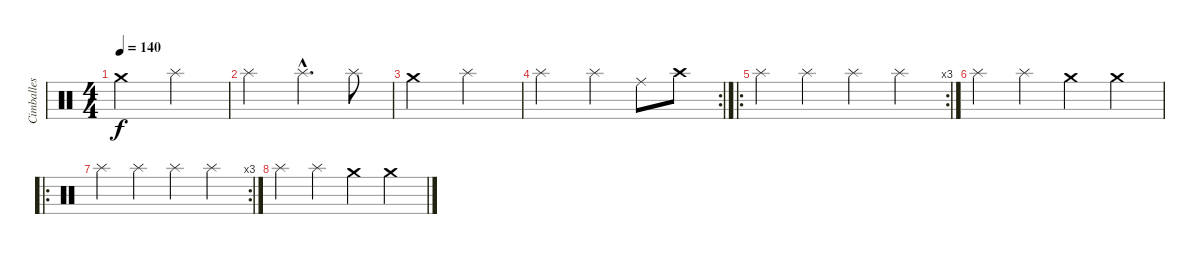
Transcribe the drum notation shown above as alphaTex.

\track ("Cimballes" "Cimballes") {instrument percussion}
\staff {score}
\articulation defaults
\ts (4 4)
\tempo 140
\clef neutral
\ks c "Crash medium (hit)".2{dy f} "Splash (hit)".2
|
"Splash (hit)".2 "Splash (hit)"{hac}.4{d} "Splash (hit)".8 |
"Crash medium (hit)".2 "Splash (hit)".2 |
\rc 2 "Splash (hit)".2 "Splash (hit)".4 "Ride (middle)".8 "Crash high (hit)".8
|
\ro
\rc 3 "Splash (hit)".4 "Splash (hit)".4 "Splash (hit)".4 "Splash (hit)".4
|
"Splash (hit)".4 "Splash (hit)".4 "Crash medium (hit)".4 "Crash medium (hit)".4 |
\ro
\rc 3 "Splash (hit)".4 "Splash (hit)".4 "Splash (hit)".4 "Splash (hit)".4
|
"Splash (hit)".4 "Splash (hit)".4 "Crash medium (hit)".4 "Crash medium (hit)".4
